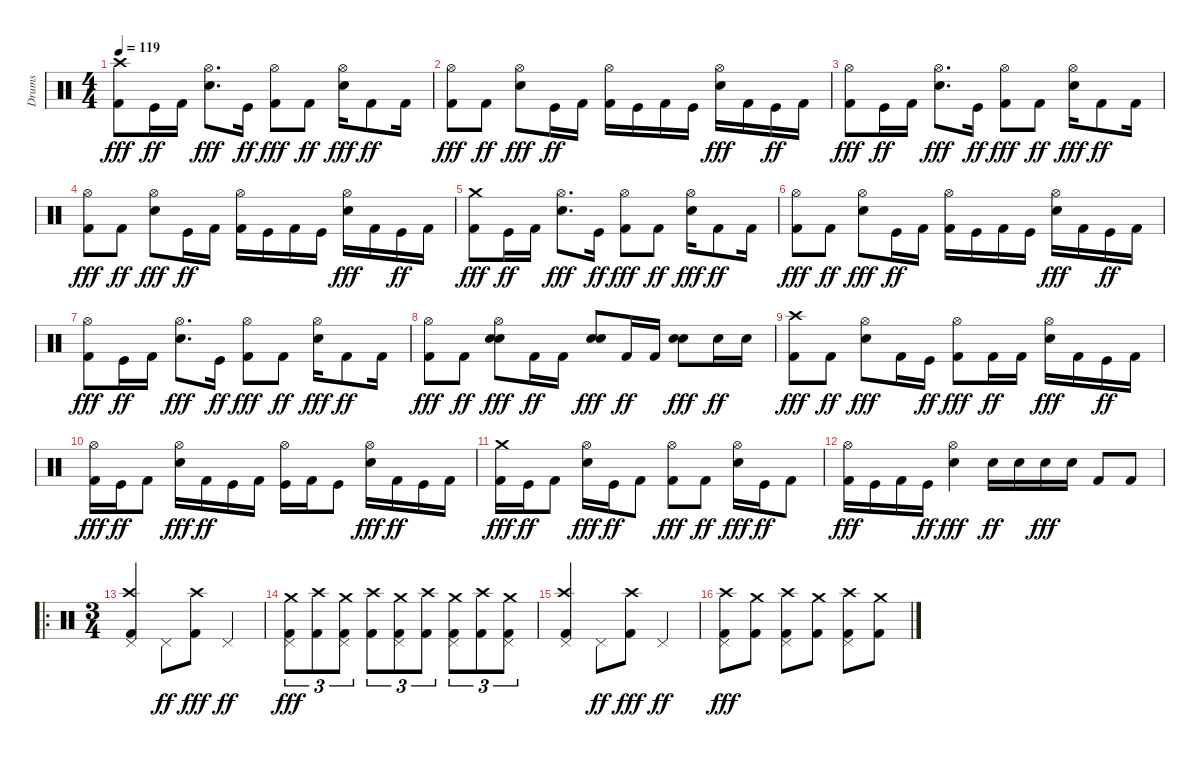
\track ("Drums" "Drums") {instrument percussion}
\staff {score}
\articulation defaults
\ts (4 4)
\tempo 119
\clef neutral
\ks c
("Kick (hit) 2" "Crash high (hit)").8{dy fff} "Kick (hit)".16{dy ff} "Kick (hit) 2".16 ("Hi-Hat (open)" "Snare (hit) 2").8{d dy fff} "Kick (hit)".16{dy ff} ("Hi-Hat (open)" "Kick (hit) 2").8{dy fff} "Kick (hit) 2".8{dy ff} ("Hi-Hat (open)" "Snare (hit) 2").16{dy fff} "Kick (hit) 2".8{dy ff} "Kick (hit) 2".16 |
("Hi-Hat (open)" "Kick (hit) 2").8{dy fff} "Kick (hit) 2".8{dy ff} ("Hi-Hat (open)" "Snare (hit) 2").8{dy fff} "Kick (hit)".16{dy ff} "Kick (hit) 2".16 ("Hi-Hat (open)" "Kick (hit) 2").16 "Kick (hit)".16 "Kick (hit) 2".16 "Kick (hit)".16 ("Hi-Hat (open)" "Electric Snare (hit)").16{dy fff} "Kick (hit) 2".16 "Kick (hit)".16{dy ff} "Kick (hit) 2".16 |
("Hi-Hat (open)" "Kick (hit) 2").8{dy fff} "Kick (hit)".16{dy ff} "Kick (hit) 2".16 ("Hi-Hat (open)" "Snare (hit) 2").8{d dy fff} "Kick (hit)".16{dy ff} ("Hi-Hat (open)" "Kick (hit) 2").8{dy fff} "Kick (hit) 2".8{dy ff} ("Hi-Hat (open)" "Snare (hit) 2").16{dy fff} "Kick (hit) 2".8{dy ff} "Kick (hit) 2".16 |
("Hi-Hat (open)" "Kick (hit) 2").8{dy fff} "Kick (hit) 2".8{dy ff} ("Hi-Hat (open)" "Snare (hit) 2").8{dy fff} "Kick (hit)".16{dy ff} "Kick (hit) 2".16 ("Hi-Hat (open)" "Kick (hit) 2").16 "Kick (hit)".16 "Kick (hit) 2".16 "Kick (hit)".16 ("Hi-Hat (open)" "Electric Snare (hit)").16{dy fff} "Kick (hit) 2".16 "Kick (hit)".16{dy ff} "Kick (hit) 2".16 |
("Kick (hit) 2" "Crash medium (hit)").8{dy fff} "Kick (hit)".16{dy ff} "Kick (hit) 2".16 ("Hi-Hat (open)" "Snare (hit) 2").8{d dy fff} "Kick (hit)".16{dy ff} ("Hi-Hat (open)" "Kick (hit) 2").8{dy fff} "Kick (hit) 2".8{dy ff} ("Hi-Hat (open)" "Snare (hit) 2").16{dy fff} "Kick (hit) 2".8{dy ff} "Kick (hit) 2".16 |
("Hi-Hat (open)" "Kick (hit) 2").8{dy fff} "Kick (hit) 2".8{dy ff} ("Hi-Hat (open)" "Snare (hit) 2").8{dy fff} "Kick (hit)".16{dy ff} "Kick (hit) 2".16 ("Hi-Hat (open)" "Kick (hit) 2").16 "Kick (hit)".16 "Kick (hit) 2".16 "Kick (hit)".16 ("Hi-Hat (open)" "Electric Snare (hit)").16{dy fff} "Kick (hit) 2".16 "Kick (hit)".16{dy ff} "Kick (hit) 2".16 |
("Hi-Hat (open)" "Kick (hit) 2").8{dy fff} "Kick (hit)".16{dy ff} "Kick (hit) 2".16 ("Hi-Hat (open)" "Snare (hit) 2").8{d dy fff} "Kick (hit)".16{dy ff} ("Hi-Hat (open)" "Kick (hit) 2").8{dy fff} "Kick (hit) 2".8{dy ff} ("Hi-Hat (open)" "Snare (hit) 2").16{dy fff} "Kick (hit) 2".8{dy ff} "Kick (hit) 2".16 |
("Hi-Hat (open)" "Kick (hit) 2").8{dy fff} "Kick (hit) 2".8{dy ff} ("Hi-Hat (open)" "Electric Snare (hit)" "Electric Snare (hit)").8{dy fff} "Kick (hit) 2".16{dy ff} "Kick (hit) 2".16 ("Electric Snare (hit)" "Electric Snare (hit)").8{dy fff} "Kick (hit) 2".16{dy ff} "Kick (hit) 2".16 ("Snare (hit) 2" "Snare (hit) 2").8{dy fff} "Snare (hit) 2".16{dy ff} "Snare (hit) 2".16 |
("Kick (hit) 2" "Crash high (hit)").8{dy fff} "Kick (hit) 2".8{dy ff} ("Hi-Hat (open)" "Snare (hit) 2").8{dy fff} "Kick (hit) 2".16 "Kick (hit)".16{dy ff} ("Hi-Hat (open)" "Kick (hit) 2").8{dy fff} "Kick (hit) 2".16{dy ff} "Kick (hit) 2".16 ("Hi-Hat (open)" "Snare (hit) 2").16{dy fff} "Kick (hit) 2".16 "Kick (hit)".16{dy ff} "Kick (hit) 2".16 |
("Hi-Hat (open)" "Kick (hit) 2").16{dy fff} "Kick (hit)".16{dy ff} "Kick (hit) 2".8 ("Hi-Hat (open)" "Snare (hit) 2").16{dy fff} "Kick (hit) 2".16{dy ff} "Kick (hit)".16 "Kick (hit) 2".16 ("Hi-Hat (open)" "Kick (hit)").16 "Kick (hit) 2".16 "Kick (hit)".8 ("Hi-Hat (open)" "Snare (hit) 2").16{dy fff} "Kick (hit) 2".16{dy ff} "Kick (hit)".16 "Kick (hit) 2".16 |
("Kick (hit) 2" "Crash medium (hit)").16{dy fff} "Kick (hit)".16{dy ff} "Kick (hit) 2".8 ("Hi-Hat (open)" "Snare (hit) 2").16{dy fff} "Kick (hit)".16{dy ff} "Kick (hit) 2".8 ("Hi-Hat (open)" "Kick (hit) 2").8{dy fff} "Kick (hit) 2".8{dy ff} ("Hi-Hat (open)" "Snare (hit) 2").16{dy fff} "Kick (hit)".16{dy ff} "Kick (hit) 2".8 |
("Hi-Hat (open)" "Kick (hit) 2").16{dy fff} "Kick (hit)".16 "Kick (hit) 2".16 "Kick (hit)".16{dy ff} ("Hi-Hat (open)" "Snare (hit) 2").4{dy fff} "Snare (hit) 2".16{dy ff} "Snare (hit) 2".16 "Snare (hit) 2".16{dy fff} "Snare (hit) 2".16 "Kick (hit) 2".8 "Kick (hit) 2".8 |
\ro
\ts (3 4)
("Pedal Hi-Hat (hit)" "Kick (hit) 2" "Crash high (hit)").4 "Pedal Hi-Hat (hit)".8{dy ff} ("Kick (hit) 2" "Crash high (hit)").8{dy fff} "Pedal Hi-Hat (hit)".4{dy ff} |
("Pedal Hi-Hat (hit)" "Kick (hit) 2" "Crash medium (hit)").8{tu (3 2) dy fff} ("Kick (hit) 2" "Crash high (hit)").8{tu (3 2)} ("Pedal Hi-Hat (hit)" "Kick (hit) 2" "Crash medium (hit)").8{tu (3 2)} ("Kick (hit) 2" "Crash high (hit)").8{tu (3 2)} ("Pedal Hi-Hat (hit)" "Kick (hit) 2" "Crash medium (hit)").8{tu (3 2)} ("Kick (hit) 2" "Crash high (hit)").8{tu (3 2)} ("Pedal Hi-Hat (hit)" "Kick (hit) 2" "Crash medium (hit)").8{tu (3 2)} ("Kick (hit) 2" "Crash high (hit)").8{tu (3 2)} ("Pedal Hi-Hat (hit)" "Kick (hit) 2" "Crash medium (hit)").8{tu (3 2)} |
("Pedal Hi-Hat (hit)" "Kick (hit) 2" "Crash high (hit)").4 "Pedal Hi-Hat (hit)".8{dy ff} ("Kick (hit) 2" "Crash high (hit)").8{dy fff} "Pedal Hi-Hat (hit)".4{dy ff} |
("Pedal Hi-Hat (hit)" "Kick (hit) 2" "Crash high (hit)").8{dy fff} ("Kick (hit) 2" "Crash medium (hit)").8 ("Pedal Hi-Hat (hit)" "Kick (hit) 2" "Crash high (hit)").8 ("Kick (hit) 2" "Crash medium (hit)").8 ("Pedal Hi-Hat (hit)" "Kick (hit) 2" "Crash high (hit)").8 ("Kick (hit) 2" "Crash medium (hit)").8
